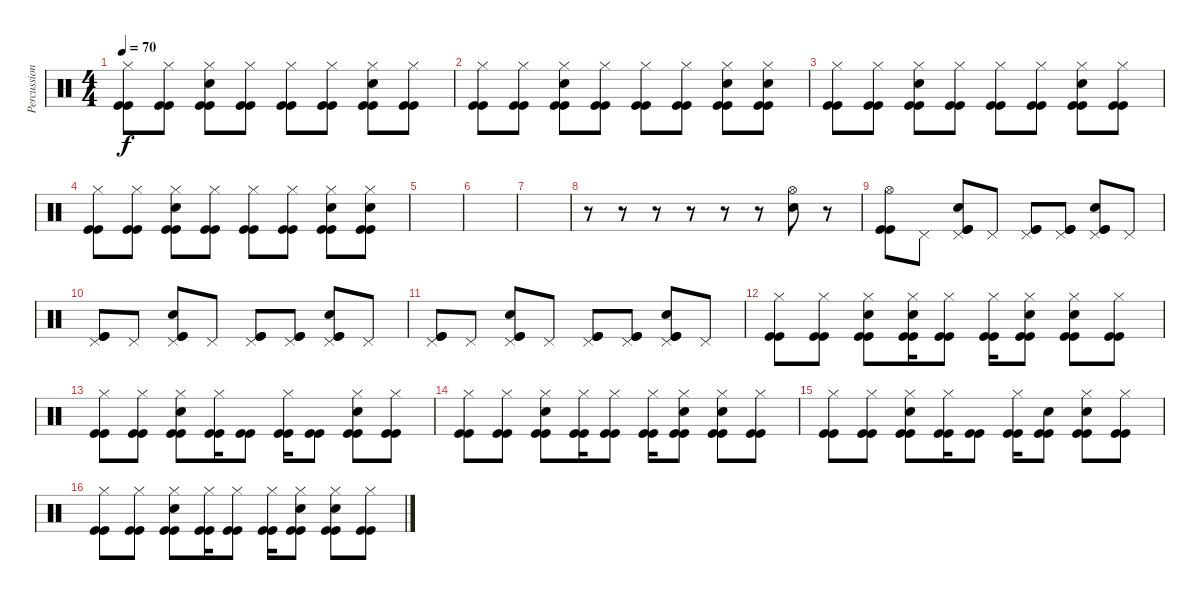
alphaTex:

\track ("Percussion" "Percussion") {instrument percussion}
\staff {score}
\articulation defaults
\ts (4 4)
\tempo 70
\clef neutral
\ks c
("Hi-Hat (closed)" "Kick (hit)" "Kick (hit)").8{dy f} ("Hi-Hat (closed)" "Kick (hit)" "Kick (hit)").8 ("Hi-Hat (closed)" "Kick (hit)" "Kick (hit)" "Electric Snare (hit)").8 ("Hi-Hat (closed)" "Kick (hit)" "Kick (hit)").8 ("Hi-Hat (closed)" "Kick (hit)" "Kick (hit)").8 ("Hi-Hat (closed)" "Kick (hit)" "Kick (hit)").8 ("Hi-Hat (closed)" "Kick (hit)" "Kick (hit)" "Electric Snare (hit)").8 ("Hi-Hat (closed)" "Kick (hit)" "Kick (hit)").8 |
("Hi-Hat (closed)" "Kick (hit)" "Kick (hit)").8 ("Hi-Hat (closed)" "Kick (hit)" "Kick (hit)").8 ("Hi-Hat (closed)" "Kick (hit)" "Kick (hit)" "Electric Snare (hit)").8 ("Hi-Hat (closed)" "Kick (hit)" "Kick (hit)").8 ("Hi-Hat (closed)" "Kick (hit)" "Kick (hit)").8 ("Hi-Hat (closed)" "Kick (hit)" "Kick (hit)").8 ("Hi-Hat (closed)" "Kick (hit)" "Kick (hit)" "Electric Snare (hit)").8 ("Hi-Hat (closed)" "Kick (hit)" "Kick (hit)" "Electric Snare (hit)").8 |
("Hi-Hat (closed)" "Kick (hit)" "Kick (hit)").8 ("Hi-Hat (closed)" "Kick (hit)" "Kick (hit)").8 ("Hi-Hat (closed)" "Kick (hit)" "Kick (hit)" "Electric Snare (hit)").8 ("Hi-Hat (closed)" "Kick (hit)" "Kick (hit)").8 ("Hi-Hat (closed)" "Kick (hit)" "Kick (hit)").8 ("Hi-Hat (closed)" "Kick (hit)" "Kick (hit)").8 ("Hi-Hat (closed)" "Kick (hit)" "Kick (hit)" "Electric Snare (hit)").8 ("Hi-Hat (closed)" "Kick (hit)" "Kick (hit)").8 |
("Hi-Hat (closed)" "Kick (hit)" "Kick (hit)").8 ("Hi-Hat (closed)" "Kick (hit)" "Kick (hit)").8 ("Hi-Hat (closed)" "Kick (hit)" "Kick (hit)" "Electric Snare (hit)").8 ("Hi-Hat (closed)" "Kick (hit)" "Kick (hit)").8 ("Hi-Hat (closed)" "Kick (hit)" "Kick (hit)").8 ("Hi-Hat (closed)" "Kick (hit)" "Kick (hit)").8 ("Hi-Hat (closed)" "Kick (hit)" "Kick (hit)" "Electric Snare (hit)").8 ("Hi-Hat (closed)" "Kick (hit)" "Kick (hit)" "Electric Snare (hit)").8 |
|
|
|
r.8 r.8 r.8 r.8 r.8 r.8 ("Hi-Hat (open)" "Electric Snare (hit)").8 r.8 |
("Hi-Hat (open)" "Kick (hit)" "Kick (hit)").8 "Pedal Hi-Hat (hit)".8 ("Pedal Hi-Hat (hit)" "Kick (hit)" "Kick (hit)" "Electric Snare (hit)").8 "Pedal Hi-Hat (hit)".8 ("Pedal Hi-Hat (hit)" "Kick (hit)" "Kick (hit)").8 ("Pedal Hi-Hat (hit)" "Kick (hit)" "Kick (hit)").8 ("Pedal Hi-Hat (hit)" "Kick (hit)" "Kick (hit)" "Electric Snare (hit)").8 "Pedal Hi-Hat (hit)".8 |
("Pedal Hi-Hat (hit)" "Kick (hit)" "Kick (hit)").8 "Pedal Hi-Hat (hit)".8 ("Pedal Hi-Hat (hit)" "Kick (hit)" "Kick (hit)" "Electric Snare (hit)").8 "Pedal Hi-Hat (hit)".8 ("Pedal Hi-Hat (hit)" "Kick (hit)" "Kick (hit)").8 ("Pedal Hi-Hat (hit)" "Kick (hit)" "Kick (hit)").8 ("Pedal Hi-Hat (hit)" "Kick (hit)" "Kick (hit)" "Electric Snare (hit)").8 "Pedal Hi-Hat (hit)".8 |
("Pedal Hi-Hat (hit)" "Kick (hit)" "Kick (hit)").8 "Pedal Hi-Hat (hit)".8 ("Pedal Hi-Hat (hit)" "Kick (hit)" "Kick (hit)" "Electric Snare (hit)").8 "Pedal Hi-Hat (hit)".8 ("Pedal Hi-Hat (hit)" "Kick (hit)" "Kick (hit)").8 ("Pedal Hi-Hat (hit)" "Kick (hit)" "Kick (hit)").8 ("Pedal Hi-Hat (hit)" "Kick (hit)" "Kick (hit)" "Electric Snare (hit)").8 "Pedal Hi-Hat (hit)".8 |
("Hi-Hat (closed)" "Kick (hit)" "Kick (hit)").8 ("Hi-Hat (closed)" "Kick (hit)" "Kick (hit)").8 ("Hi-Hat (closed)" "Kick (hit)" "Kick (hit)" "Electric Snare (hit)").8 ("Hi-Hat (closed)" "Kick (hit)" "Kick (hit)" "Electric Snare (hit)").16 ("Hi-Hat (closed)" "Kick (hit)" "Kick (hit)").8 ("Hi-Hat (closed)" "Kick (hit)" "Kick (hit)").16 ("Hi-Hat (closed)" "Kick (hit)" "Kick (hit)" "Electric Snare (hit)").8 ("Hi-Hat (closed)" "Kick (hit)" "Kick (hit)" "Electric Snare (hit)").8 ("Hi-Hat (closed)" "Kick (hit)" "Kick (hit)").8 |
("Hi-Hat (closed)" "Kick (hit)" "Kick (hit)").8 ("Hi-Hat (closed)" "Kick (hit)" "Kick (hit)").8 ("Hi-Hat (closed)" "Kick (hit)" "Kick (hit)" "Electric Snare (hit)").8 ("Hi-Hat (closed)" "Kick (hit)" "Kick (hit)").16 ("Kick (hit)" "Kick (hit)").8 ("Hi-Hat (closed)" "Kick (hit)" "Kick (hit)").16 ("Kick (hit)" "Kick (hit)").8 ("Hi-Hat (closed)" "Kick (hit)" "Kick (hit)" "Electric Snare (hit)").8 ("Hi-Hat (closed)" "Kick (hit)" "Kick (hit)").8 |
("Hi-Hat (closed)" "Kick (hit)" "Kick (hit)").8 ("Hi-Hat (closed)" "Kick (hit)" "Kick (hit)").8 ("Hi-Hat (closed)" "Kick (hit)" "Kick (hit)" "Electric Snare (hit)").8 ("Hi-Hat (closed)" "Kick (hit)" "Kick (hit)").16 ("Hi-Hat (closed)" "Kick (hit)" "Kick (hit)").8 ("Hi-Hat (closed)" "Kick (hit)" "Kick (hit)").16 ("Hi-Hat (closed)" "Kick (hit)" "Kick (hit)" "Electric Snare (hit)").8 ("Hi-Hat (closed)" "Kick (hit)" "Kick (hit)" "Electric Snare (hit)").8 ("Hi-Hat (closed)" "Kick (hit)" "Kick (hit)").8 |
("Hi-Hat (closed)" "Kick (hit)" "Kick (hit)").8 ("Hi-Hat (closed)" "Kick (hit)" "Kick (hit)").8 ("Hi-Hat (closed)" "Kick (hit)" "Kick (hit)" "Electric Snare (hit)").8 ("Hi-Hat (closed)" "Kick (hit)" "Kick (hit)").16 ("Kick (hit)" "Kick (hit)").8 ("Hi-Hat (closed)" "Kick (hit)" "Kick (hit)").16 ("Kick (hit)" "Kick (hit)" "Electric Snare (hit)").8 ("Hi-Hat (closed)" "Kick (hit)" "Kick (hit)" "Electric Snare (hit)").8 ("Hi-Hat (closed)" "Kick (hit)" "Kick (hit)").8 |
("Hi-Hat (closed)" "Kick (hit)" "Kick (hit)").8 ("Hi-Hat (closed)" "Kick (hit)" "Kick (hit)").8 ("Hi-Hat (closed)" "Kick (hit)" "Kick (hit)" "Electric Snare (hit)").8 ("Hi-Hat (closed)" "Kick (hit)" "Kick (hit)").16 ("Hi-Hat (closed)" "Kick (hit)" "Kick (hit)").8 ("Hi-Hat (closed)" "Kick (hit)" "Kick (hit)").16 ("Hi-Hat (closed)" "Kick (hit)" "Kick (hit)" "Electric Snare (hit)").8 ("Hi-Hat (closed)" "Kick (hit)" "Kick (hit)" "Electric Snare (hit)").8 ("Hi-Hat (closed)" "Kick (hit)" "Kick (hit)").8
